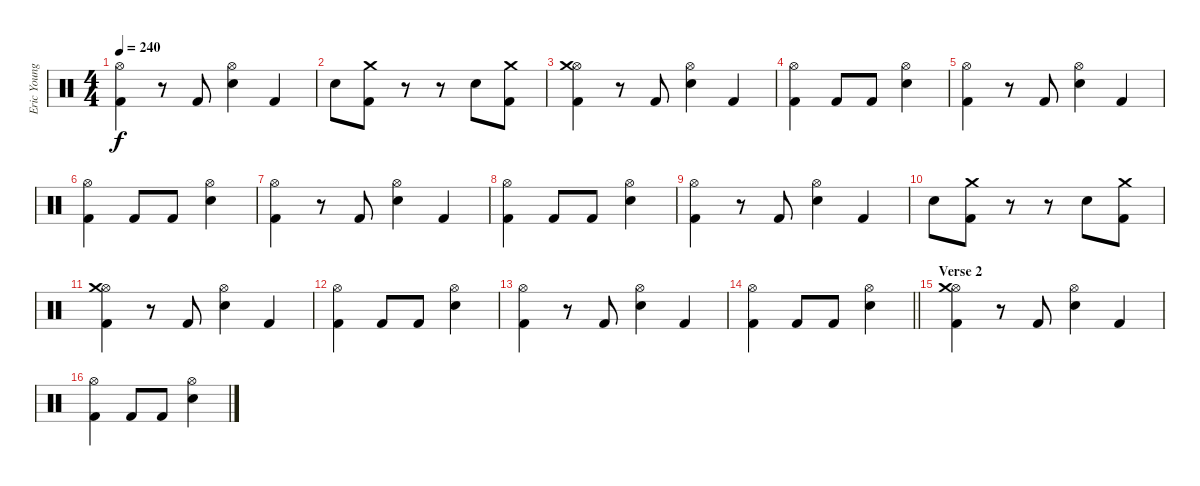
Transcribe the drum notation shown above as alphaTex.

\track ("Eric Young (Drums)" "Eric Young") {instrument percussion}
\staff {score}
\articulation defaults
\ts (4 4)
\tempo 240
\clef neutral
\ks c
("Hi-Hat (open)" "Kick (hit) 2").4{dy f} r.8 "Kick (hit) 2".8 ("Hi-Hat (open)" "Snare (hit) 2").4 "Kick (hit) 2".4 |
"Snare (hit) 2".8 ("Kick (hit) 2" "Crash medium (hit)").8 r.8 r.8 "Snare (hit) 2".8 ("Kick (hit) 2" "Crash medium (hit)").8 |
("Hi-Hat (open)" "Kick (hit) 2" "Crash medium (hit)").4 r.8 "Kick (hit) 2".8 ("Hi-Hat (open)" "Snare (hit) 2").4 "Kick (hit) 2".4 |
("Hi-Hat (open)" "Kick (hit) 2").4 "Kick (hit) 2".8 "Kick (hit) 2".8 ("Hi-Hat (open)" "Snare (hit) 2").4 |
("Hi-Hat (open)" "Kick (hit) 2").4 r.8 "Kick (hit) 2".8 ("Hi-Hat (open)" "Snare (hit) 2").4 "Kick (hit) 2".4 |
("Hi-Hat (open)" "Kick (hit) 2").4 "Kick (hit) 2".8 "Kick (hit) 2".8 ("Hi-Hat (open)" "Snare (hit) 2").4 |
("Hi-Hat (open)" "Kick (hit) 2").4 r.8 "Kick (hit) 2".8 ("Hi-Hat (open)" "Snare (hit) 2").4 "Kick (hit) 2".4 |
("Hi-Hat (open)" "Kick (hit) 2").4 "Kick (hit) 2".8 "Kick (hit) 2".8 ("Hi-Hat (open)" "Snare (hit) 2").4 |
("Hi-Hat (open)" "Kick (hit) 2").4 r.8 "Kick (hit) 2".8 ("Hi-Hat (open)" "Snare (hit) 2").4 "Kick (hit) 2".4 |
"Snare (hit) 2".8 ("Kick (hit) 2" "Crash medium (hit)").8 r.8 r.8 "Snare (hit) 2".8 ("Kick (hit) 2" "Crash medium (hit)").8 |
("Hi-Hat (open)" "Kick (hit) 2" "Crash medium (hit)").4 r.8 "Kick (hit) 2".8 ("Hi-Hat (open)" "Snare (hit) 2").4 "Kick (hit) 2".4 |
("Hi-Hat (open)" "Kick (hit) 2").4 "Kick (hit) 2".8 "Kick (hit) 2".8 ("Hi-Hat (open)" "Snare (hit) 2").4 |
("Hi-Hat (open)" "Kick (hit) 2").4 r.8 "Kick (hit) 2".8 ("Hi-Hat (open)" "Snare (hit) 2").4 "Kick (hit) 2".4 |
\barLineRight lightlight
("Hi-Hat (open)" "Kick (hit) 2").4 "Kick (hit) 2".8 "Kick (hit) 2".8 ("Hi-Hat (open)" "Snare (hit) 2").4 |
\section ("" "Verse 2")
("Hi-Hat (open)" "Kick (hit) 2" "Crash medium (hit)").4 r.8 "Kick (hit) 2".8 ("Hi-Hat (open)" "Snare (hit) 2").4 "Kick (hit) 2".4 |
("Hi-Hat (open)" "Kick (hit) 2").4 "Kick (hit) 2".8 "Kick (hit) 2".8 ("Hi-Hat (open)" "Snare (hit) 2").4
